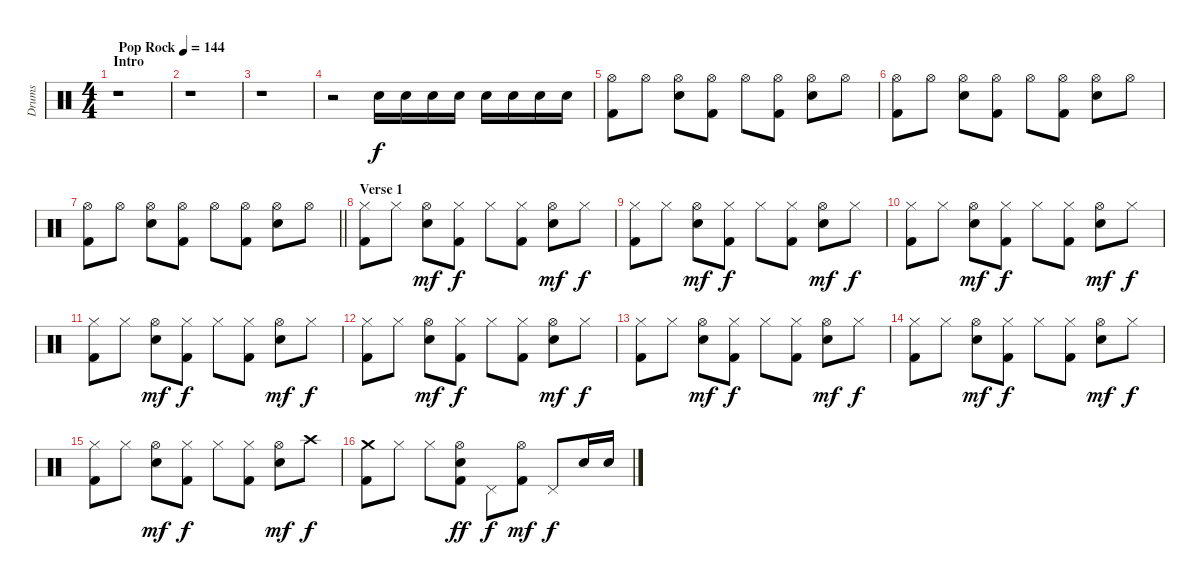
\track ("Drums" "Drums") {instrument percussion}
\staff {score}
\articulation defaults
\ts (4 4)
\section ("" "Intro")
\tempo (144 "Pop Rock")
\clef neutral
\ks c
r.1{dy f} |
r.1 |
r.1 |
r.2 "Electric Snare (hit)".16 "Electric Snare (hit)".16 "Electric Snare (hit)".16 "Electric Snare (hit)".16 "Electric Snare (hit)".16 "Electric Snare (hit)".16 "Electric Snare (hit)".16 "Electric Snare (hit)".16 |
("Hi-Hat (open)" "Kick (hit) 2").8 "Hi-Hat (open)".8 ("Hi-Hat (open)" "Electric Snare (hit)").8 ("Hi-Hat (open)" "Kick (hit) 2").8 "Hi-Hat (open)".8 ("Hi-Hat (open)" "Kick (hit) 2").8 ("Hi-Hat (open)" "Electric Snare (hit)").8 "Hi-Hat (open)".8 |
("Hi-Hat (open)" "Kick (hit) 2").8 "Hi-Hat (open)".8 ("Hi-Hat (open)" "Electric Snare (hit)").8 ("Hi-Hat (open)" "Kick (hit) 2").8 "Hi-Hat (open)".8 ("Hi-Hat (open)" "Kick (hit) 2").8 ("Hi-Hat (open)" "Electric Snare (hit)").8 "Hi-Hat (open)".8 |
\barLineRight lightlight
("Hi-Hat (open)" "Kick (hit) 2").8 "Hi-Hat (open)".8 ("Hi-Hat (open)" "Electric Snare (hit)").8 ("Hi-Hat (open)" "Kick (hit) 2").8 "Hi-Hat (open)".8 ("Hi-Hat (open)" "Kick (hit) 2").8 ("Hi-Hat (open)" "Electric Snare (hit)").8 "Hi-Hat (open)".8 |
\section ("" "Verse 1")
("Hi-Hat (closed)" "Kick (hit) 2").8 "Hi-Hat (closed)".8 ("Hi-Hat (open)" "Electric Snare (hit)").8{dy mf} ("Hi-Hat (closed)" "Kick (hit) 2").8{dy f} "Hi-Hat (closed)".8 ("Hi-Hat (closed)" "Kick (hit) 2").8 ("Hi-Hat (open)" "Electric Snare (hit)").8{dy mf} "Hi-Hat (closed)".8{dy f} |
("Hi-Hat (closed)" "Kick (hit) 2").8 "Hi-Hat (closed)".8 ("Hi-Hat (open)" "Electric Snare (hit)").8{dy mf} ("Hi-Hat (closed)" "Kick (hit) 2").8{dy f} "Hi-Hat (closed)".8 ("Hi-Hat (closed)" "Kick (hit) 2").8 ("Hi-Hat (open)" "Electric Snare (hit)").8{dy mf} "Hi-Hat (closed)".8{dy f} |
("Hi-Hat (closed)" "Kick (hit) 2").8 "Hi-Hat (closed)".8 ("Hi-Hat (open)" "Electric Snare (hit)").8{dy mf} ("Hi-Hat (closed)" "Kick (hit) 2").8{dy f} "Hi-Hat (closed)".8 ("Hi-Hat (closed)" "Kick (hit) 2").8 ("Hi-Hat (open)" "Electric Snare (hit)").8{dy mf} "Hi-Hat (closed)".8{dy f} |
("Hi-Hat (closed)" "Kick (hit) 2").8 "Hi-Hat (closed)".8 ("Hi-Hat (open)" "Electric Snare (hit)").8{dy mf} ("Hi-Hat (closed)" "Kick (hit) 2").8{dy f} "Hi-Hat (closed)".8 ("Hi-Hat (closed)" "Kick (hit) 2").8 ("Hi-Hat (open)" "Electric Snare (hit)").8{dy mf} "Hi-Hat (closed)".8{dy f} |
("Hi-Hat (closed)" "Kick (hit) 2").8 "Hi-Hat (closed)".8 ("Hi-Hat (open)" "Electric Snare (hit)").8{dy mf} ("Hi-Hat (closed)" "Kick (hit) 2").8{dy f} "Hi-Hat (closed)".8 ("Hi-Hat (closed)" "Kick (hit) 2").8 ("Hi-Hat (open)" "Electric Snare (hit)").8{dy mf} "Hi-Hat (closed)".8{dy f} |
("Hi-Hat (closed)" "Kick (hit) 2").8 "Hi-Hat (closed)".8 ("Hi-Hat (open)" "Electric Snare (hit)").8{dy mf} ("Hi-Hat (closed)" "Kick (hit) 2").8{dy f} "Hi-Hat (closed)".8 ("Hi-Hat (closed)" "Kick (hit) 2").8 ("Hi-Hat (open)" "Electric Snare (hit)").8{dy mf} "Hi-Hat (closed)".8{dy f} |
("Hi-Hat (closed)" "Kick (hit) 2").8 "Hi-Hat (closed)".8 ("Hi-Hat (open)" "Electric Snare (hit)").8{dy mf} ("Hi-Hat (closed)" "Kick (hit) 2").8{dy f} "Hi-Hat (closed)".8 ("Hi-Hat (closed)" "Kick (hit) 2").8 ("Hi-Hat (open)" "Electric Snare (hit)").8{dy mf} "Hi-Hat (closed)".8{dy f} |
("Hi-Hat (closed)" "Kick (hit) 2").8 "Hi-Hat (closed)".8 ("Hi-Hat (open)" "Electric Snare (hit)").8{dy mf} ("Hi-Hat (closed)" "Kick (hit) 2").8{dy f} "Hi-Hat (closed)".8 ("Hi-Hat (closed)" "Kick (hit) 2").8 ("Hi-Hat (open)" "Electric Snare (hit)").8{dy mf} "Crash high (hit)".8{dy f} |
("Crash medium (hit)" "Kick (hit) 2").8 "Hi-Hat (closed)".8 "Hi-Hat (closed)".8 ("Hi-Hat (open)" "Electric Snare (hit)" "Kick (hit) 2").8{dy ff} "Pedal Hi-Hat (hit)".8{dy f} ("Hi-Hat (open)" "Kick (hit) 2").8{dy mf} "Pedal Hi-Hat (hit)".8{dy f} "Electric Snare (hit)".16 "Electric Snare (hit)".16
